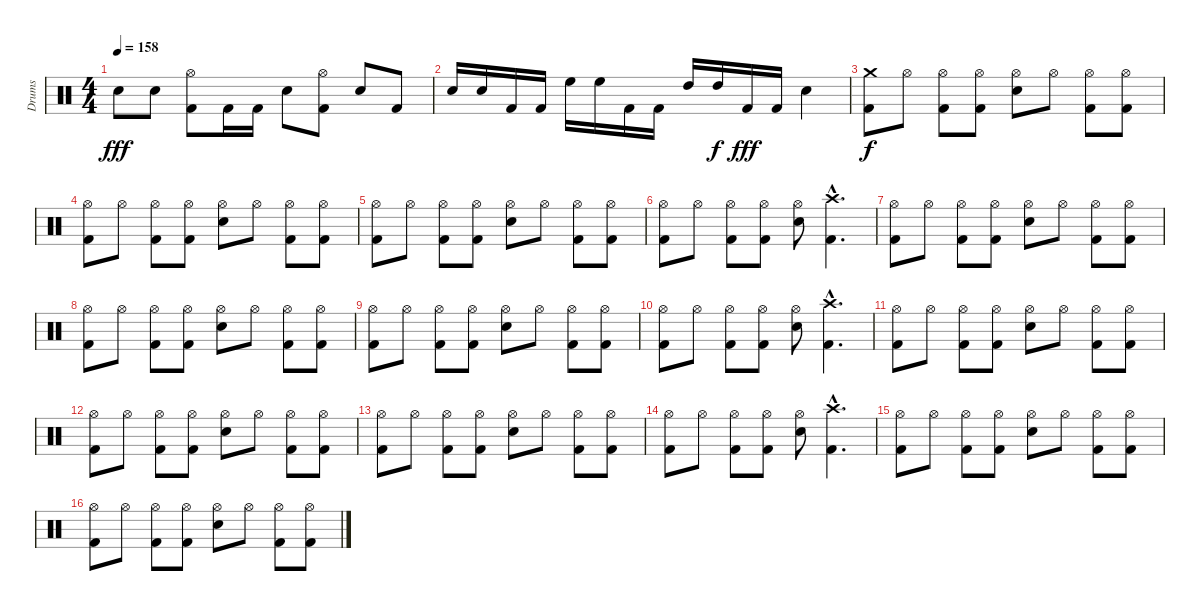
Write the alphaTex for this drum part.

\track ("Drums" "Drums") {instrument percussion}
\staff {score}
\articulation defaults
\ts (4 4)
\tempo 158
\clef neutral
\ks c "Snare (hit) 2".8{dy fff} "Snare (hit) 2".8
("Hi-Hat (open)" "Kick (hit) 2").8 "Kick (hit) 2".16 "Kick (hit) 2".16 "Snare (hit) 2".8 ("Hi-Hat (open)" "Kick (hit) 2").8 "Snare (hit) 2".8 "Kick (hit) 2".8 |
"Snare (hit) 2".16 "Snare (hit) 2".16 "Kick (hit) 2".16 "Kick (hit) 2".16 "High Floor Tom (hit)".16 "High Floor Tom (hit)".16 "Kick (hit) 2".16 "Kick (hit) 2".16 "High Tom (hit)".16 "High Tom (hit)".16{dy f} "Kick (hit) 2".16{dy fff} "Kick (hit) 2".16 "Snare (hit) 2".4 |
("Crash medium (hit)" "Kick (hit) 2").8{dy f} "Hi-Hat (open)".8 ("Hi-Hat (open)" "Kick (hit) 2").8 ("Hi-Hat (open)" "Kick (hit) 2").8 ("Hi-Hat (open)" "Snare (hit) 2").8 "Hi-Hat (open)".8 ("Hi-Hat (open)" "Kick (hit) 2").8 ("Hi-Hat (open)" "Kick (hit) 2").8 |
("Hi-Hat (open)" "Kick (hit) 2").8 "Hi-Hat (open)".8 ("Hi-Hat (open)" "Kick (hit) 2").8 ("Hi-Hat (open)" "Kick (hit) 2").8 ("Hi-Hat (open)" "Snare (hit) 2").8 "Hi-Hat (open)".8 ("Hi-Hat (open)" "Kick (hit) 2").8 ("Hi-Hat (open)" "Kick (hit) 2").8 |
("Hi-Hat (open)" "Kick (hit) 2").8 "Hi-Hat (open)".8 ("Hi-Hat (open)" "Kick (hit) 2").8 ("Hi-Hat (open)" "Kick (hit) 2").8 ("Hi-Hat (open)" "Snare (hit) 2").8 "Hi-Hat (open)".8 ("Hi-Hat (open)" "Kick (hit) 2").8 ("Hi-Hat (open)" "Kick (hit) 2").8 |
("Hi-Hat (open)" "Kick (hit) 2").8 "Hi-Hat (open)".8 ("Hi-Hat (open)" "Kick (hit) 2").8 ("Hi-Hat (open)" "Kick (hit) 2").8 ("Hi-Hat (open)" "Snare (hit) 2").8 ("Crash high (hit)"{hac} "Kick (hit) 2"{hac}).4{d} |
("Hi-Hat (open)" "Kick (hit) 2").8 "Hi-Hat (open)".8 ("Hi-Hat (open)" "Kick (hit) 2").8 ("Hi-Hat (open)" "Kick (hit) 2").8 ("Hi-Hat (open)" "Snare (hit) 2").8 "Hi-Hat (open)".8 ("Hi-Hat (open)" "Kick (hit) 2").8 ("Hi-Hat (open)" "Kick (hit) 2").8 |
("Hi-Hat (open)" "Kick (hit) 2").8 "Hi-Hat (open)".8 ("Hi-Hat (open)" "Kick (hit) 2").8 ("Hi-Hat (open)" "Kick (hit) 2").8 ("Hi-Hat (open)" "Snare (hit) 2").8 "Hi-Hat (open)".8 ("Hi-Hat (open)" "Kick (hit) 2").8 ("Hi-Hat (open)" "Kick (hit) 2").8 |
("Hi-Hat (open)" "Kick (hit) 2").8 "Hi-Hat (open)".8 ("Hi-Hat (open)" "Kick (hit) 2").8 ("Hi-Hat (open)" "Kick (hit) 2").8 ("Hi-Hat (open)" "Snare (hit) 2").8 "Hi-Hat (open)".8 ("Hi-Hat (open)" "Kick (hit) 2").8 ("Hi-Hat (open)" "Kick (hit) 2").8 |
("Hi-Hat (open)" "Kick (hit) 2").8 "Hi-Hat (open)".8 ("Hi-Hat (open)" "Kick (hit) 2").8 ("Hi-Hat (open)" "Kick (hit) 2").8 ("Hi-Hat (open)" "Snare (hit) 2").8 ("Crash high (hit)"{hac} "Kick (hit) 2"{hac}).4{d} |
("Hi-Hat (open)" "Kick (hit) 2").8 "Hi-Hat (open)".8 ("Hi-Hat (open)" "Kick (hit) 2").8 ("Hi-Hat (open)" "Kick (hit) 2").8 ("Hi-Hat (open)" "Snare (hit) 2").8 "Hi-Hat (open)".8 ("Hi-Hat (open)" "Kick (hit) 2").8 ("Hi-Hat (open)" "Kick (hit) 2").8 |
("Hi-Hat (open)" "Kick (hit) 2").8 "Hi-Hat (open)".8 ("Hi-Hat (open)" "Kick (hit) 2").8 ("Hi-Hat (open)" "Kick (hit) 2").8 ("Hi-Hat (open)" "Snare (hit) 2").8 "Hi-Hat (open)".8 ("Hi-Hat (open)" "Kick (hit) 2").8 ("Hi-Hat (open)" "Kick (hit) 2").8 |
("Hi-Hat (open)" "Kick (hit) 2").8 "Hi-Hat (open)".8 ("Hi-Hat (open)" "Kick (hit) 2").8 ("Hi-Hat (open)" "Kick (hit) 2").8 ("Hi-Hat (open)" "Snare (hit) 2").8 "Hi-Hat (open)".8 ("Hi-Hat (open)" "Kick (hit) 2").8 ("Hi-Hat (open)" "Kick (hit) 2").8 |
("Hi-Hat (open)" "Kick (hit) 2").8 "Hi-Hat (open)".8 ("Hi-Hat (open)" "Kick (hit) 2").8 ("Hi-Hat (open)" "Kick (hit) 2").8 ("Hi-Hat (open)" "Snare (hit) 2").8 ("Crash high (hit)"{hac} "Kick (hit) 2"{hac}).4{d} |
("Hi-Hat (open)" "Kick (hit) 2").8 "Hi-Hat (open)".8 ("Hi-Hat (open)" "Kick (hit) 2").8 ("Hi-Hat (open)" "Kick (hit) 2").8 ("Hi-Hat (open)" "Snare (hit) 2").8 "Hi-Hat (open)".8 ("Hi-Hat (open)" "Kick (hit) 2").8 ("Hi-Hat (open)" "Kick (hit) 2").8 |
("Hi-Hat (open)" "Kick (hit) 2").8 "Hi-Hat (open)".8 ("Hi-Hat (open)" "Kick (hit) 2").8 ("Hi-Hat (open)" "Kick (hit) 2").8 ("Hi-Hat (open)" "Snare (hit) 2").8 "Hi-Hat (open)".8 ("Hi-Hat (open)" "Kick (hit) 2").8 ("Hi-Hat (open)" "Kick (hit) 2").8
